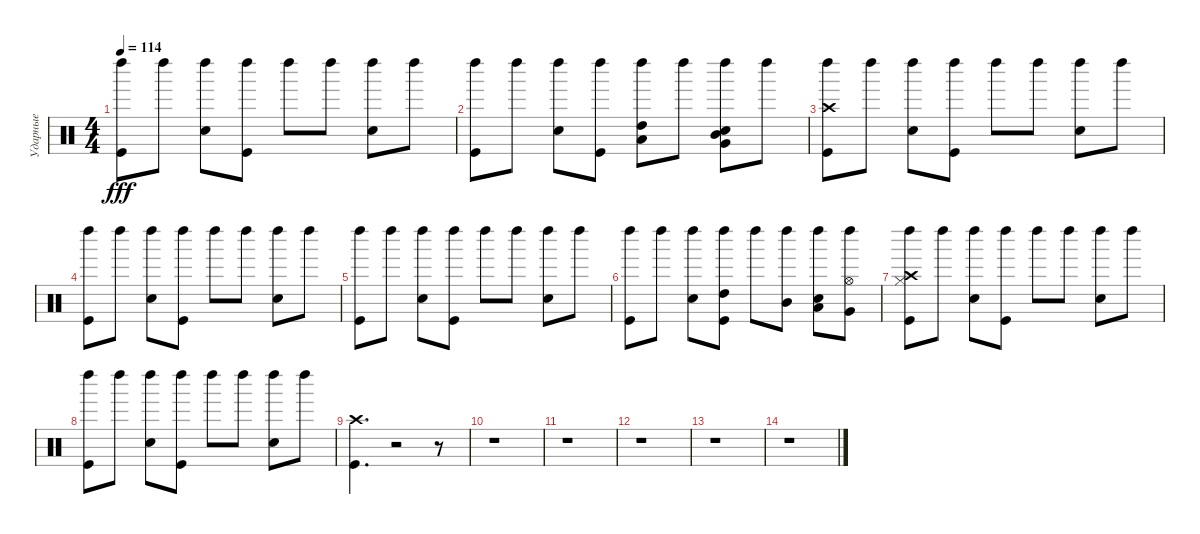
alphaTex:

\track ("Ударные" "Ударные") {instrument percussion}
\staff {score}
\articulation defaults
\ts (4 4)
\tempo 114
\clef neutral
\ks c
("Kick (hit)" "Left Maraca (hit)").8{dy fff} "Left Maraca (hit)".8 ("Snare (hit) 2" "Left Maraca (hit)").8 ("Kick (hit)" "Left Maraca (hit)").8 "Left Maraca (hit)".8 "Left Maraca (hit)".8 ("Snare (hit) 2" "Left Maraca (hit)").8 "Left Maraca (hit)".8 |
("Kick (hit)" "Left Maraca (hit)").8 "Left Maraca (hit)".8 ("Snare (hit) 2" "Left Maraca (hit)").8 ("Kick (hit)" "Left Maraca (hit)").8 ("Left Maraca (hit)" "High Tom (hit)" "Low Tom (hit)").8 "Left Maraca (hit)".8 ("Snare (hit) 2" "Left Maraca (hit)" "Mid Tom (hit)" "Very Low Tom (hit)").8 "Left Maraca (hit)".8 |
("Kick (hit)" "Crash high (hit)" "Left Maraca (hit)").8 "Left Maraca (hit)".8 ("Snare (hit) 2" "Left Maraca (hit)").8 ("Kick (hit)" "Left Maraca (hit)").8 "Left Maraca (hit)".8 "Left Maraca (hit)".8 ("Snare (hit) 2" "Left Maraca (hit)").8 "Left Maraca (hit)".8 |
("Kick (hit)" "Left Maraca (hit)").8 "Left Maraca (hit)".8 ("Snare (hit) 2" "Left Maraca (hit)").8 ("Kick (hit)" "Left Maraca (hit)").8 "Left Maraca (hit)".8 "Left Maraca (hit)".8 ("Snare (hit) 2" "Left Maraca (hit)").8 "Left Maraca (hit)".8 |
("Kick (hit)" "Left Maraca (hit)").8 "Left Maraca (hit)".8 ("Snare (hit) 2" "Left Maraca (hit)").8 ("Kick (hit)" "Left Maraca (hit)").8 "Left Maraca (hit)".8 "Left Maraca (hit)".8 ("Snare (hit) 2" "Left Maraca (hit)").8 "Left Maraca (hit)".8 |
("Kick (hit)" "Left Maraca (hit)").8 "Left Maraca (hit)".8 ("Snare (hit) 2" "Left Maraca (hit)").8 ("Kick (hit)" "Left Maraca (hit)" "High Tom (hit)").8 "Left Maraca (hit)".8 ("Left Maraca (hit)" "Mid Tom (hit)").8 ("Snare (hit) 2" "Left Maraca (hit)" "Low Tom (hit)").8 ("Left Maraca (hit)" "Hi-Hat (open)" "Very Low Tom (hit)").8 |
("Kick (hit)" "Crash high (hit)" "Left Maraca (hit)" "Hi-Hat (closed)").8 "Left Maraca (hit)".8 ("Snare (hit) 2" "Left Maraca (hit)").8 ("Kick (hit)" "Left Maraca (hit)").8 "Left Maraca (hit)".8 "Left Maraca (hit)".8 ("Snare (hit) 2" "Left Maraca (hit)").8 "Left Maraca (hit)".8 |
("Kick (hit)" "Left Maraca (hit)").8 "Left Maraca (hit)".8 ("Snare (hit) 2" "Left Maraca (hit)").8 ("Kick (hit)" "Left Maraca (hit)").8 "Left Maraca (hit)".8 "Left Maraca (hit)".8 ("Snare (hit) 2" "Left Maraca (hit)").8 "Left Maraca (hit)".8 |
("Kick (hit)" "Crash high (hit)").4{d} r.2 r.8 |
r.1 |
r.1 |
r.1 |
r.1 |
r.1
